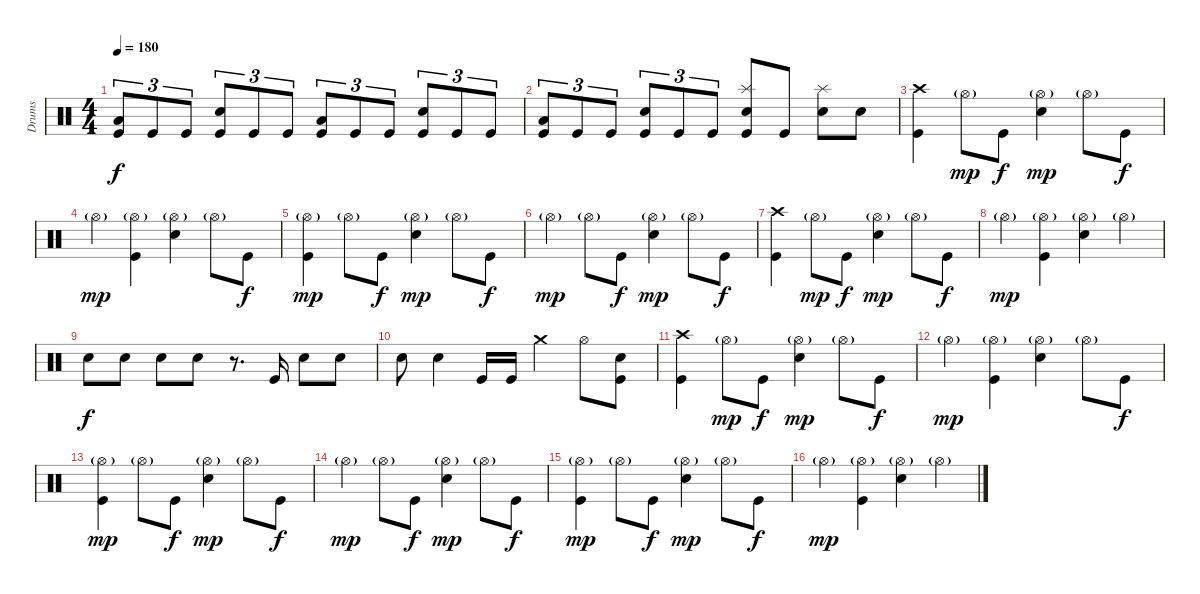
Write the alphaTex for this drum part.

\track ("Drums" "Drums") {instrument percussion}
\staff {score}
\articulation defaults
\ts (4 4)
\tempo 180
\clef neutral
\ks c
("Low Tom (hit)" "Kick (hit)").8{tu (3 2) dy f} "Kick (hit)".8{tu (3 2)} "Kick (hit)".8{tu (3 2)} ("Snare (hit) 2" "Kick (hit)").8{tu (3 2)} "Kick (hit)".8{tu (3 2)} "Kick (hit)".8{tu (3 2)} ("Low Tom (hit)" "Kick (hit)").8{tu (3 2)} "Kick (hit)".8{tu (3 2)} "Kick (hit)".8{tu (3 2)} ("Snare (hit) 2" "Kick (hit)").8{tu (3 2)} "Kick (hit)".8{tu (3 2)} "Kick (hit)".8{tu (3 2)} |
("Low Tom (hit)" "Kick (hit)").8{tu (3 2)} "Kick (hit)".8{tu (3 2)} "Kick (hit)".8{tu (3 2)} ("Snare (hit) 2" "Kick (hit)").8{tu (3 2)} "Kick (hit)".8{tu (3 2)} "Kick (hit)".8{tu (3 2)} ("Splash (hit)" "Electric Snare (hit)" "Kick (hit)").8 "Kick (hit)".8 ("Splash (hit)" "Electric Snare (hit)").8 "Electric Snare (hit)".8 |
("Crash high (hit)" "Kick (hit)").4 "Hi-Hat (open)"{g}.8{dy mp} "Kick (hit)".8{dy f} ("Hi-Hat (open)"{g} "Snare (hit) 2").4{dy mp} "Hi-Hat (open)"{g}.8 "Kick (hit)".8{dy f} |
"Hi-Hat (open)"{g}.4{dy mp} ("Hi-Hat (open)"{g} "Kick (hit)").4 ("Hi-Hat (open)"{g} "Snare (hit) 2").4 "Hi-Hat (open)"{g}.8 "Kick (hit)".8{dy f} |
("Hi-Hat (open)"{g} "Kick (hit)").4{dy mp} "Hi-Hat (open)"{g}.8 "Kick (hit)".8{dy f} ("Hi-Hat (open)"{g} "Snare (hit) 2").4{dy mp} "Hi-Hat (open)"{g}.8 "Kick (hit)".8{dy f} |
"Hi-Hat (open)"{g}.4{dy mp} "Hi-Hat (open)"{g}.8 "Kick (hit)".8{dy f} ("Hi-Hat (open)"{g} "Snare (hit) 2").4{dy mp} "Hi-Hat (open)"{g}.8 "Kick (hit)".8{dy f} |
("Crash high (hit)" "Kick (hit)").4 "Hi-Hat (open)"{g}.8{dy mp} "Kick (hit)".8{dy f} ("Hi-Hat (open)"{g} "Snare (hit) 2").4{dy mp} "Hi-Hat (open)"{g}.8 "Kick (hit)".8{dy f} |
"Hi-Hat (open)"{g}.4{dy mp} ("Hi-Hat (open)"{g} "Kick (hit)").4 ("Hi-Hat (open)"{g} "Snare (hit) 2").4 "Hi-Hat (open)"{g}.4 |
"Electric Snare (hit)".8{dy f} "Electric Snare (hit)".8 "Electric Snare (hit)".8 "Electric Snare (hit)".8 r.8{d} "Kick (hit)".16 "Electric Snare (hit)".8 "Electric Snare (hit)".8 |
"Electric Snare (hit)".8 "Electric Snare (hit)".4 "Kick (hit)".16 "Kick (hit)".16 "Crash medium (hit)".4 "Hi-Hat (open)".8 ("Electric Snare (hit)" "Kick (hit)").8 |
("Crash high (hit)" "Kick (hit)").4 "Hi-Hat (open)"{g}.8{dy mp} "Kick (hit)".8{dy f} ("Hi-Hat (open)"{g} "Snare (hit) 2").4{dy mp} "Hi-Hat (open)"{g}.8 "Kick (hit)".8{dy f} |
"Hi-Hat (open)"{g}.4{dy mp} ("Hi-Hat (open)"{g} "Kick (hit)").4 ("Hi-Hat (open)"{g} "Snare (hit) 2").4 "Hi-Hat (open)"{g}.8 "Kick (hit)".8{dy f} |
("Hi-Hat (open)"{g} "Kick (hit)").4{dy mp} "Hi-Hat (open)"{g}.8 "Kick (hit)".8{dy f} ("Hi-Hat (open)"{g} "Snare (hit) 2").4{dy mp} "Hi-Hat (open)"{g}.8 "Kick (hit)".8{dy f} |
"Hi-Hat (open)"{g}.4{dy mp} "Hi-Hat (open)"{g}.8 "Kick (hit)".8{dy f} ("Hi-Hat (open)"{g} "Snare (hit) 2").4{dy mp} "Hi-Hat (open)"{g}.8 "Kick (hit)".8{dy f} |
("Hi-Hat (open)"{g} "Kick (hit)").4{dy mp} "Hi-Hat (open)"{g}.8 "Kick (hit)".8{dy f} ("Hi-Hat (open)"{g} "Snare (hit) 2").4{dy mp} "Hi-Hat (open)"{g}.8 "Kick (hit)".8{dy f} |
"Hi-Hat (open)"{g}.4{dy mp} ("Hi-Hat (open)"{g} "Kick (hit)").4 ("Hi-Hat (open)"{g} "Snare (hit) 2").4 "Hi-Hat (open)"{g}.4
